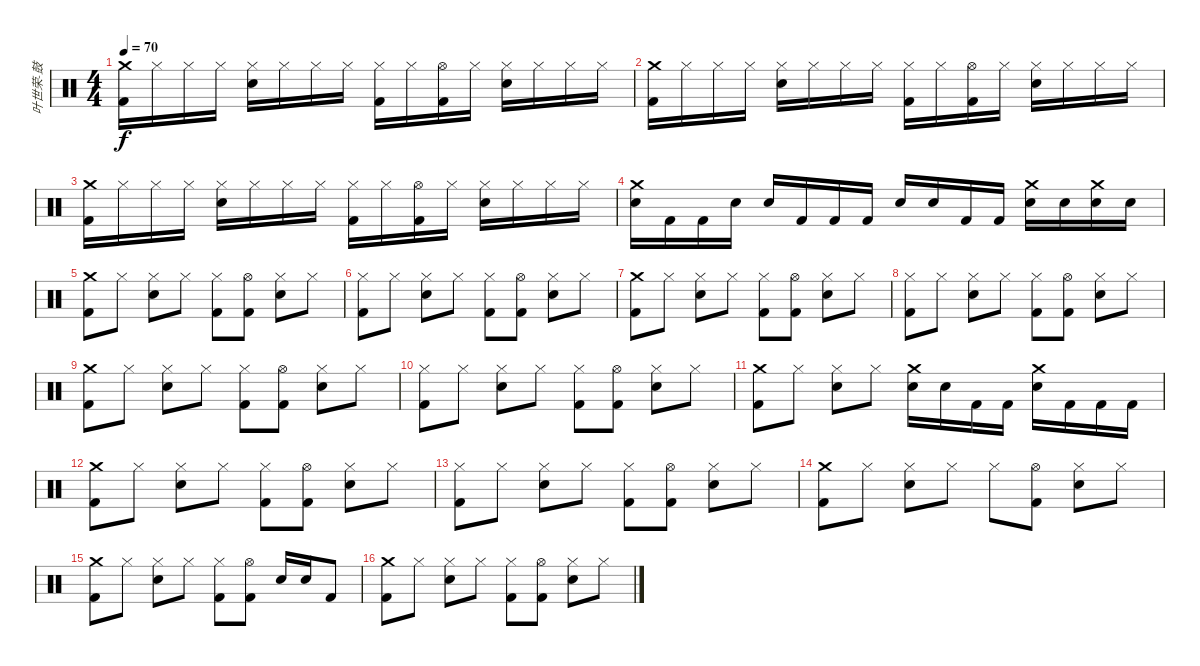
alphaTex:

\track ("叶世荣-鼓" "叶世荣-鼓") {instrument percussion}
\staff {score}
\articulation defaults
\ts (4 4)
\tempo 70
\clef neutral
\ks c
("Crash medium (hit)" "Kick (hit) 2").16{dy f} "Hi-Hat (closed)".16 "Hi-Hat (closed)".16 "Hi-Hat (closed)".16 ("Hi-Hat (closed)" "Snare (hit) 2").16 "Hi-Hat (closed)".16 "Hi-Hat (closed)".16 "Hi-Hat (closed)".16 ("Hi-Hat (closed)" "Kick (hit) 2").16 "Hi-Hat (closed)".16 ("Hi-Hat (open)" "Kick (hit) 2").16 "Hi-Hat (closed)".16 ("Hi-Hat (closed)" "Snare (hit) 2").16 "Hi-Hat (closed)".16 "Hi-Hat (closed)".16 "Hi-Hat (closed)".16 |
("Crash medium (hit)" "Kick (hit) 2").16 "Hi-Hat (closed)".16 "Hi-Hat (closed)".16 "Hi-Hat (closed)".16 ("Hi-Hat (closed)" "Snare (hit) 2").16 "Hi-Hat (closed)".16 "Hi-Hat (closed)".16 "Hi-Hat (closed)".16 ("Hi-Hat (closed)" "Kick (hit) 2").16 "Hi-Hat (closed)".16 ("Hi-Hat (open)" "Kick (hit) 2").16 "Hi-Hat (closed)".16 ("Hi-Hat (closed)" "Snare (hit) 2").16 "Hi-Hat (closed)".16 "Hi-Hat (closed)".16 "Hi-Hat (closed)".16 |
("Crash medium (hit)" "Kick (hit) 2").16 "Hi-Hat (closed)".16 "Hi-Hat (closed)".16 "Hi-Hat (closed)".16 ("Hi-Hat (closed)" "Snare (hit) 2").16 "Hi-Hat (closed)".16 "Hi-Hat (closed)".16 "Hi-Hat (closed)".16 ("Hi-Hat (closed)" "Kick (hit) 2").16 "Hi-Hat (closed)".16 ("Hi-Hat (open)" "Kick (hit) 2").16 "Hi-Hat (closed)".16 ("Hi-Hat (closed)" "Snare (hit) 2").16 "Hi-Hat (closed)".16 "Hi-Hat (closed)".16 "Hi-Hat (closed)".16 |
("Crash medium (hit)" "Snare (hit) 2").16 "Kick (hit) 2".16 "Kick (hit) 2".16 "Snare (hit) 2".16 "Snare (hit) 2".16 "Kick (hit) 2".16 "Kick (hit) 2".16 "Kick (hit) 2".16 "Snare (hit) 2".16 "Snare (hit) 2".16 "Kick (hit) 2".16 "Kick (hit) 2".16 ("Crash medium (hit)" "Snare (hit) 2").16 "Snare (hit) 2".16 ("Crash medium (hit)" "Snare (hit) 2").16 "Snare (hit) 2".16 |
("Crash medium (hit)" "Kick (hit) 2").8 "Hi-Hat (closed)".8 ("Hi-Hat (closed)" "Snare (hit) 2").8 "Hi-Hat (closed)".8 ("Hi-Hat (closed)" "Kick (hit) 2").8 ("Hi-Hat (open)" "Kick (hit) 2").8 ("Hi-Hat (closed)" "Snare (hit) 2").8 "Hi-Hat (closed)".8 |
("Hi-Hat (closed)" "Kick (hit) 2").8 "Hi-Hat (closed)".8 ("Hi-Hat (closed)" "Snare (hit) 2").8 "Hi-Hat (closed)".8 ("Hi-Hat (closed)" "Kick (hit) 2").8 ("Hi-Hat (open)" "Kick (hit) 2").8 ("Hi-Hat (closed)" "Snare (hit) 2").8 "Hi-Hat (closed)".8 |
("Crash medium (hit)" "Kick (hit) 2").8 "Hi-Hat (closed)".8 ("Hi-Hat (closed)" "Snare (hit) 2").8 "Hi-Hat (closed)".8 ("Hi-Hat (closed)" "Kick (hit) 2").8 ("Hi-Hat (open)" "Kick (hit) 2").8 ("Hi-Hat (closed)" "Snare (hit) 2").8 "Hi-Hat (closed)".8 |
("Hi-Hat (closed)" "Kick (hit) 2").8 "Hi-Hat (closed)".8 ("Hi-Hat (closed)" "Snare (hit) 2").8 "Hi-Hat (closed)".8 ("Hi-Hat (closed)" "Kick (hit) 2").8 ("Hi-Hat (open)" "Kick (hit) 2").8 ("Hi-Hat (closed)" "Snare (hit) 2").8 "Hi-Hat (closed)".8 |
("Crash medium (hit)" "Kick (hit) 2").8 "Hi-Hat (closed)".8 ("Hi-Hat (closed)" "Snare (hit) 2").8 "Hi-Hat (closed)".8 ("Hi-Hat (closed)" "Kick (hit) 2").8 ("Hi-Hat (open)" "Kick (hit) 2").8 ("Hi-Hat (closed)" "Snare (hit) 2").8 "Hi-Hat (closed)".8 |
("Hi-Hat (closed)" "Kick (hit) 2").8 "Hi-Hat (closed)".8 ("Hi-Hat (closed)" "Snare (hit) 2").8 "Hi-Hat (closed)".8 ("Hi-Hat (closed)" "Kick (hit) 2").8 ("Hi-Hat (open)" "Kick (hit) 2").8 ("Hi-Hat (closed)" "Snare (hit) 2").8 "Hi-Hat (closed)".8 |
("Crash medium (hit)" "Kick (hit) 2").8 "Hi-Hat (closed)".8 ("Hi-Hat (closed)" "Snare (hit) 2").8 "Hi-Hat (closed)".8 ("Crash medium (hit)" "Snare (hit) 2").16 "Snare (hit) 2".16 "Kick (hit) 2".16 "Kick (hit) 2".16 ("Crash medium (hit)" "Snare (hit) 2").16 "Kick (hit) 2".16 "Kick (hit) 2".16 "Kick (hit) 2".16 |
("Crash medium (hit)" "Kick (hit) 2").8 "Hi-Hat (closed)".8 ("Hi-Hat (closed)" "Snare (hit) 2").8 "Hi-Hat (closed)".8 ("Hi-Hat (closed)" "Kick (hit) 2").8 ("Hi-Hat (open)" "Kick (hit) 2").8 ("Hi-Hat (closed)" "Snare (hit) 2").8 "Hi-Hat (closed)".8 |
("Hi-Hat (closed)" "Kick (hit) 2").8 "Hi-Hat (closed)".8 ("Hi-Hat (closed)" "Snare (hit) 2").8 "Hi-Hat (closed)".8 ("Hi-Hat (closed)" "Kick (hit) 2").8 ("Hi-Hat (open)" "Kick (hit) 2").8 ("Hi-Hat (closed)" "Snare (hit) 2").8 "Hi-Hat (closed)".8 |
("Crash medium (hit)" "Kick (hit) 2").8 "Hi-Hat (closed)".8 ("Hi-Hat (closed)" "Snare (hit) 2").8 "Hi-Hat (closed)".8 "Hi-Hat (closed)".8 ("Hi-Hat (open)" "Kick (hit) 2").8 ("Hi-Hat (closed)" "Snare (hit) 2").8 "Hi-Hat (closed)".8 |
("Crash medium (hit)" "Kick (hit) 2").8 "Hi-Hat (closed)".8 ("Hi-Hat (closed)" "Snare (hit) 2").8 "Hi-Hat (closed)".8 ("Hi-Hat (closed)" "Kick (hit) 2").8 ("Hi-Hat (open)" "Kick (hit) 2").8 "Snare (hit) 2".16 "Snare (hit) 2".16 "Kick (hit) 2".8 |
("Crash medium (hit)" "Kick (hit) 2").8 "Hi-Hat (closed)".8 ("Hi-Hat (closed)" "Snare (hit) 2").8 "Hi-Hat (closed)".8 ("Hi-Hat (closed)" "Kick (hit) 2").8 ("Hi-Hat (open)" "Kick (hit) 2").8 ("Hi-Hat (closed)" "Snare (hit) 2").8 "Hi-Hat (closed)".8
